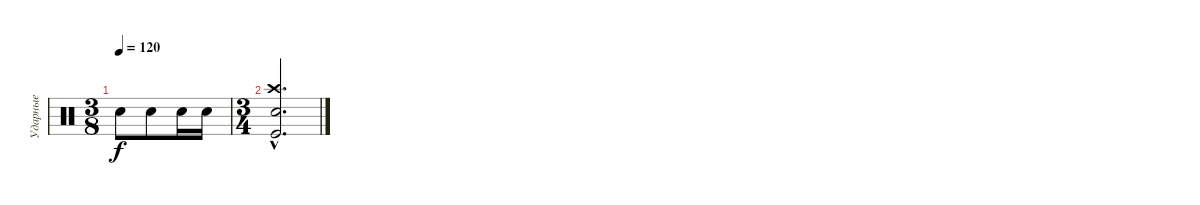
\track ("Ударные" "Ударные") {instrument percussion}
\staff {score}
\articulation defaults
\ts (3 8)
\tempo 120
\clef neutral
\ks c "Electric Snare (hit)".8{dy f} "Electric Snare (hit)".8 "Electric Snare (hit)".16 "Electric Snare (hit)".16
|
\ts (3 4)
("Crash high (hit)"{hac} "Electric Snare (hit)"{hac} "Kick (hit)"{hac}).2{d}
